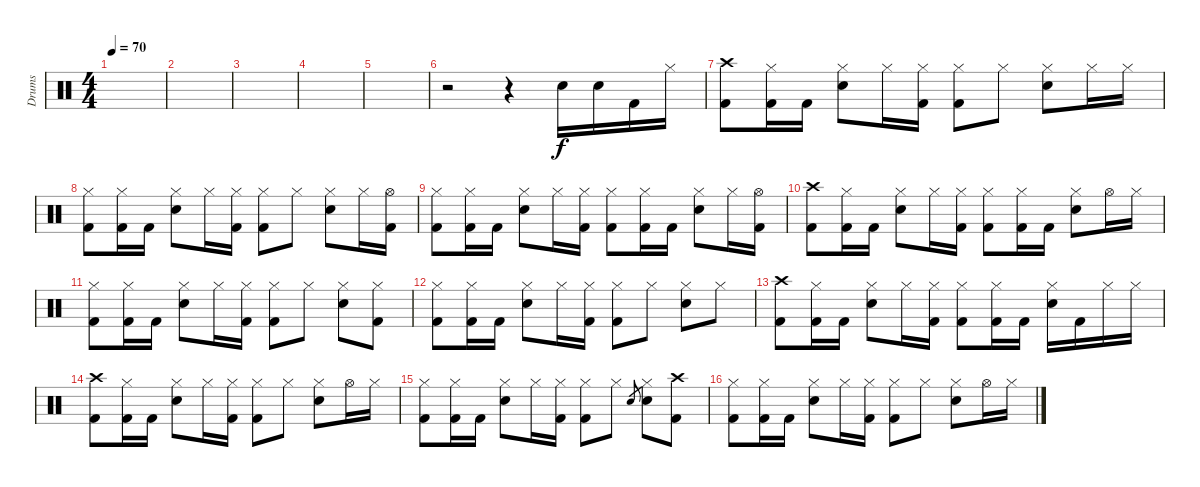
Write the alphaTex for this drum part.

\track ("Drums" "Drums") {instrument percussion}
\staff {score}
\articulation defaults
\ts (4 4)
\tempo 70
\clef neutral
\ks c
|
|
|
|
|
r.2 r.4 "Electric Snare (hit)".16 "Electric Snare (hit)".16 "Kick (hit) 2".16 "Hi-Hat (closed)".16 |
("Crash high (hit)" "Kick (hit) 2").8 ("Hi-Hat (closed)" "Kick (hit) 2").16 "Kick (hit) 2".16 ("Hi-Hat (closed)" "Electric Snare (hit)").8 "Hi-Hat (closed)".16 ("Hi-Hat (closed)" "Kick (hit) 2").16 ("Hi-Hat (closed)" "Kick (hit) 2").8 "Hi-Hat (closed)".8 ("Hi-Hat (closed)" "Electric Snare (hit)").8 "Hi-Hat (closed)".16 "Hi-Hat (closed)".16 |
("Hi-Hat (closed)" "Kick (hit) 2").8 ("Hi-Hat (closed)" "Kick (hit) 2").16 "Kick (hit) 2".16 ("Hi-Hat (closed)" "Electric Snare (hit)").8 "Hi-Hat (closed)".16 ("Hi-Hat (closed)" "Kick (hit) 2").16 ("Hi-Hat (closed)" "Kick (hit) 2").8 "Hi-Hat (closed)".8 ("Hi-Hat (closed)" "Electric Snare (hit)").8 "Hi-Hat (closed)".16 ("Hi-Hat (open)" "Kick (hit) 2").16 |
("Hi-Hat (closed)" "Kick (hit) 2").8 ("Hi-Hat (closed)" "Kick (hit) 2").16 "Kick (hit) 2".16 ("Hi-Hat (closed)" "Electric Snare (hit)").8 "Hi-Hat (closed)".16 ("Hi-Hat (closed)" "Kick (hit) 2").16 ("Hi-Hat (closed)" "Kick (hit) 2").8 ("Hi-Hat (closed)" "Kick (hit) 2").16 "Kick (hit) 2".16 ("Hi-Hat (closed)" "Electric Snare (hit)").8 "Hi-Hat (closed)".16 ("Hi-Hat (open)" "Kick (hit) 2").16 |
("Crash high (hit)" "Kick (hit) 2").8 ("Hi-Hat (closed)" "Kick (hit) 2").16 "Kick (hit) 2".16 ("Hi-Hat (closed)" "Electric Snare (hit)").8 "Hi-Hat (closed)".16 ("Hi-Hat (closed)" "Kick (hit) 2").16 ("Hi-Hat (closed)" "Kick (hit) 2").8 ("Hi-Hat (closed)" "Kick (hit) 2").16 "Kick (hit) 2".16 ("Hi-Hat (closed)" "Electric Snare (hit)").8 "Hi-Hat (open)".16 "Hi-Hat (closed)".16 |
("Hi-Hat (closed)" "Kick (hit) 2").8 ("Hi-Hat (closed)" "Kick (hit) 2").16 "Kick (hit) 2".16 ("Hi-Hat (closed)" "Electric Snare (hit)").8 "Hi-Hat (closed)".16 ("Hi-Hat (closed)" "Kick (hit) 2").16 ("Hi-Hat (closed)" "Kick (hit) 2").8 "Hi-Hat (closed)".8 ("Hi-Hat (closed)" "Electric Snare (hit)").8 ("Hi-Hat (closed)" "Kick (hit) 2").8 |
("Hi-Hat (closed)" "Kick (hit) 2").8 ("Hi-Hat (closed)" "Kick (hit) 2").16 "Kick (hit) 2".16 ("Hi-Hat (closed)" "Electric Snare (hit)").8 "Hi-Hat (closed)".16 ("Hi-Hat (closed)" "Kick (hit) 2").16 ("Hi-Hat (closed)" "Kick (hit) 2").8 "Hi-Hat (closed)".8 ("Hi-Hat (closed)" "Electric Snare (hit)").8 "Hi-Hat (closed)".8 |
("Crash high (hit)" "Kick (hit) 2").8 ("Hi-Hat (closed)" "Kick (hit) 2").16 "Kick (hit) 2".16 ("Hi-Hat (closed)" "Electric Snare (hit)").8 "Hi-Hat (closed)".16 ("Hi-Hat (closed)" "Kick (hit) 2").16 ("Hi-Hat (closed)" "Kick (hit) 2").8 ("Hi-Hat (closed)" "Kick (hit) 2").16 "Kick (hit) 2".16 ("Hi-Hat (closed)" "Electric Snare (hit)").16 "Kick (hit) 2".16 "Hi-Hat (closed)".16 "Hi-Hat (closed)".16 |
("Crash high (hit)" "Kick (hit) 2").8 ("Hi-Hat (closed)" "Kick (hit) 2").16 "Kick (hit) 2".16 ("Hi-Hat (closed)" "Electric Snare (hit)").8 "Hi-Hat (closed)".16 ("Hi-Hat (closed)" "Kick (hit) 2").16 ("Hi-Hat (closed)" "Kick (hit) 2").8 "Hi-Hat (closed)".8 ("Hi-Hat (closed)" "Electric Snare (hit)").8 "Hi-Hat (open)".16 "Hi-Hat (closed)".16 |
("Hi-Hat (closed)" "Kick (hit) 2").8 ("Hi-Hat (closed)" "Kick (hit) 2").16 "Kick (hit) 2".16 ("Hi-Hat (closed)" "Electric Snare (hit)").8 "Hi-Hat (closed)".16 ("Hi-Hat (closed)" "Kick (hit) 2").16 ("Hi-Hat (closed)" "Kick (hit) 2").8 "Hi-Hat (closed)".8 "Electric Snare (hit)".8{gr} ("Hi-Hat (closed)" "Electric Snare (hit)").8 ("Crash high (hit)" "Kick (hit) 2").8 |
("Hi-Hat (closed)" "Kick (hit) 2").8 ("Hi-Hat (closed)" "Kick (hit) 2").16 "Kick (hit) 2".16 ("Hi-Hat (closed)" "Electric Snare (hit)").8 "Hi-Hat (closed)".16 ("Hi-Hat (closed)" "Kick (hit) 2").16 ("Hi-Hat (closed)" "Kick (hit) 2").8 "Hi-Hat (closed)".8 ("Hi-Hat (closed)" "Electric Snare (hit)").8 "Hi-Hat (open)".16 "Hi-Hat (closed)".16
